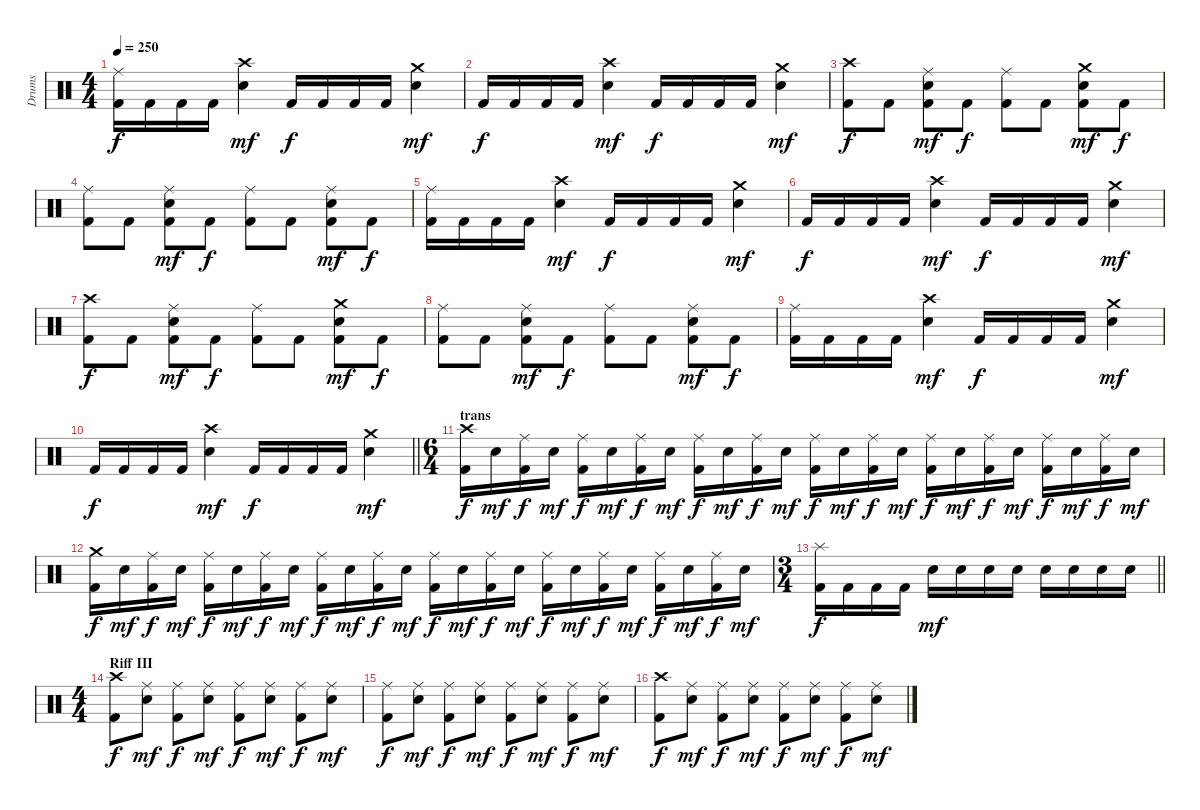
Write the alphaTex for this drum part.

\track ("Drums" "Drums") {instrument percussion}
\staff {score}
\articulation defaults
\ts (4 4)
\tempo 250
\clef neutral
\ks c
("Ride (middle)" "Kick (hit) 2").16{dy f} "Kick (hit) 2".16 "Kick (hit) 2".16 "Kick (hit) 2".16 ("Crash high (hit)" "Electric Snare (hit)").4{dy mf} "Kick (hit) 2".16{dy f} "Kick (hit) 2".16 "Kick (hit) 2".16 "Kick (hit) 2".16 ("Crash medium (hit)" "Electric Snare (hit)").4{dy mf} |
"Kick (hit) 2".16{dy f} "Kick (hit) 2".16 "Kick (hit) 2".16 "Kick (hit) 2".16 ("Crash high (hit)" "Electric Snare (hit)").4{dy mf} "Kick (hit) 2".16{dy f} "Kick (hit) 2".16 "Kick (hit) 2".16 "Kick (hit) 2".16 ("Crash medium (hit)" "Electric Snare (hit)").4{dy mf} |
("Crash high (hit)" "Kick (hit) 2").8{dy f} "Kick (hit) 2".8 ("Ride (middle)" "Electric Snare (hit)" "Kick (hit) 2").8{dy mf} "Kick (hit) 2".8{dy f} ("Ride (middle)" "Kick (hit) 2").8 "Kick (hit) 2".8 ("Crash medium (hit)" "Electric Snare (hit)" "Kick (hit) 2").8{dy mf} "Kick (hit) 2".8{dy f} |
("Ride (middle)" "Kick (hit) 2").8 "Kick (hit) 2".8 ("Ride (middle)" "Electric Snare (hit)" "Kick (hit) 2").8{dy mf} "Kick (hit) 2".8{dy f} ("Ride (middle)" "Kick (hit) 2").8 "Kick (hit) 2".8 ("Ride (middle)" "Electric Snare (hit)" "Kick (hit) 2").8{dy mf} "Kick (hit) 2".8{dy f} |
("Ride (middle)" "Kick (hit) 2").16 "Kick (hit) 2".16 "Kick (hit) 2".16 "Kick (hit) 2".16 ("Crash high (hit)" "Electric Snare (hit)").4{dy mf} "Kick (hit) 2".16{dy f} "Kick (hit) 2".16 "Kick (hit) 2".16 "Kick (hit) 2".16 ("Crash medium (hit)" "Electric Snare (hit)").4{dy mf} |
"Kick (hit) 2".16{dy f} "Kick (hit) 2".16 "Kick (hit) 2".16 "Kick (hit) 2".16 ("Crash high (hit)" "Electric Snare (hit)").4{dy mf} "Kick (hit) 2".16{dy f} "Kick (hit) 2".16 "Kick (hit) 2".16 "Kick (hit) 2".16 ("Crash medium (hit)" "Electric Snare (hit)").4{dy mf} |
("Crash high (hit)" "Kick (hit) 2").8{dy f} "Kick (hit) 2".8 ("Ride (middle)" "Electric Snare (hit)" "Kick (hit) 2").8{dy mf} "Kick (hit) 2".8{dy f} ("Ride (middle)" "Kick (hit) 2").8 "Kick (hit) 2".8 ("Crash medium (hit)" "Electric Snare (hit)" "Kick (hit) 2").8{dy mf} "Kick (hit) 2".8{dy f} |
("Ride (middle)" "Kick (hit) 2").8 "Kick (hit) 2".8 ("Ride (middle)" "Electric Snare (hit)" "Kick (hit) 2").8{dy mf} "Kick (hit) 2".8{dy f} ("Ride (middle)" "Kick (hit) 2").8 "Kick (hit) 2".8 ("Ride (middle)" "Electric Snare (hit)" "Kick (hit) 2").8{dy mf} "Kick (hit) 2".8{dy f} |
("Ride (middle)" "Kick (hit) 2").16 "Kick (hit) 2".16 "Kick (hit) 2".16 "Kick (hit) 2".16 ("Crash high (hit)" "Electric Snare (hit)").4{dy mf} "Kick (hit) 2".16{dy f} "Kick (hit) 2".16 "Kick (hit) 2".16 "Kick (hit) 2".16 ("Crash medium (hit)" "Electric Snare (hit)").4{dy mf} |
\barLineRight lightlight "Kick (hit) 2".16{dy f} "Kick (hit) 2".16 "Kick (hit) 2".16 "Kick (hit) 2".16
("Crash high (hit)" "Electric Snare (hit)").4{dy mf} "Kick (hit) 2".16{dy f} "Kick (hit) 2".16 "Kick (hit) 2".16 "Kick (hit) 2".16 ("Crash medium (hit)" "Electric Snare (hit)").4{dy mf} |
\ts (6 4)
\section ("" "trans")
("Crash high (hit)" "Kick (hit) 2").16{dy f} "Electric Snare (hit)".16{dy mf} ("Ride (middle)" "Kick (hit) 2").16{dy f} "Electric Snare (hit)".16{dy mf} ("Ride (middle)" "Kick (hit) 2").16{dy f} "Electric Snare (hit)".16{dy mf} ("Ride (middle)" "Kick (hit) 2").16{dy f} "Electric Snare (hit)".16{dy mf} ("Ride (middle)" "Kick (hit) 2").16{dy f} "Electric Snare (hit)".16{dy mf} ("Ride (middle)" "Kick (hit) 2").16{dy f} "Electric Snare (hit)".16{dy mf} ("Ride (middle)" "Kick (hit) 2").16{dy f} "Electric Snare (hit)".16{dy mf} ("Ride (middle)" "Kick (hit) 2").16{dy f} "Electric Snare (hit)".16{dy mf} ("Ride (middle)" "Kick (hit) 2").16{dy f} "Electric Snare (hit)".16{dy mf} ("Ride (middle)" "Kick (hit) 2").16{dy f} "Electric Snare (hit)".16{dy mf} ("Ride (middle)" "Kick (hit) 2").16{dy f} "Electric Snare (hit)".16{dy mf} ("Ride (middle)" "Kick (hit) 2").16{dy f} "Electric Snare (hit)".16{dy mf} |
("Crash medium (hit)" "Kick (hit) 2").16{dy f} "Electric Snare (hit)".16{dy mf} ("Ride (middle)" "Kick (hit) 2").16{dy f} "Electric Snare (hit)".16{dy mf} ("Ride (middle)" "Kick (hit) 2").16{dy f} "Electric Snare (hit)".16{dy mf} ("Ride (middle)" "Kick (hit) 2").16{dy f} "Electric Snare (hit)".16{dy mf} ("Ride (middle)" "Kick (hit) 2").16{dy f} "Electric Snare (hit)".16{dy mf} ("Ride (middle)" "Kick (hit) 2").16{dy f} "Electric Snare (hit)".16{dy mf} ("Ride (middle)" "Kick (hit) 2").16{dy f} "Electric Snare (hit)".16{dy mf} ("Ride (middle)" "Kick (hit) 2").16{dy f} "Electric Snare (hit)".16{dy mf} ("Ride (middle)" "Kick (hit) 2").16{dy f} "Electric Snare (hit)".16{dy mf} ("Ride (middle)" "Kick (hit) 2").16{dy f} "Electric Snare (hit)".16{dy mf} ("Ride (middle)" "Kick (hit) 2").16{dy f} "Electric Snare (hit)".16{dy mf} ("Ride (middle)" "Kick (hit) 2").16{dy f} "Electric Snare (hit)".16{dy mf} |
\ts (3 4)
\barLineRight lightlight
("Splash (hit)" "Kick (hit) 2").16{dy f} "Kick (hit) 2".16 "Kick (hit) 2".16 "Kick (hit) 2".16 "Electric Snare (hit)".16{dy mf} "Electric Snare (hit)".16 "Electric Snare (hit)".16 "Electric Snare (hit)".16 "Electric Snare (hit)".16 "Electric Snare (hit)".16 "Electric Snare (hit)".16 "Electric Snare (hit)".16 |
\ts (4 4)
\section ("" "Riff III")
("Crash high (hit)" "Kick (hit) 2").8{dy f} ("Ride (middle)" "Electric Snare (hit)").8{dy mf} ("Ride (middle)" "Kick (hit) 2").8{dy f} ("Ride (middle)" "Electric Snare (hit)").8{dy mf} ("Ride (middle)" "Kick (hit) 2").8{dy f} ("Ride (middle)" "Electric Snare (hit)").8{dy mf} ("Ride (middle)" "Kick (hit) 2").8{dy f} ("Ride (middle)" "Electric Snare (hit)").8{dy mf} |
("Ride (middle)" "Kick (hit) 2").8{dy f} ("Ride (middle)" "Electric Snare (hit)").8{dy mf} ("Ride (middle)" "Kick (hit) 2").8{dy f} ("Ride (middle)" "Electric Snare (hit)").8{dy mf} ("Ride (middle)" "Kick (hit) 2").8{dy f} ("Ride (middle)" "Electric Snare (hit)").8{dy mf} ("Ride (middle)" "Kick (hit) 2").8{dy f} ("Ride (middle)" "Electric Snare (hit)").8{dy mf} |
("Crash high (hit)" "Kick (hit) 2").8{dy f} ("Ride (middle)" "Electric Snare (hit)").8{dy mf} ("Ride (middle)" "Kick (hit) 2").8{dy f} ("Ride (middle)" "Electric Snare (hit)").8{dy mf} ("Ride (middle)" "Kick (hit) 2").8{dy f} ("Ride (middle)" "Electric Snare (hit)").8{dy mf} ("Ride (middle)" "Kick (hit) 2").8{dy f} ("Ride (middle)" "Electric Snare (hit)").8{dy mf}
